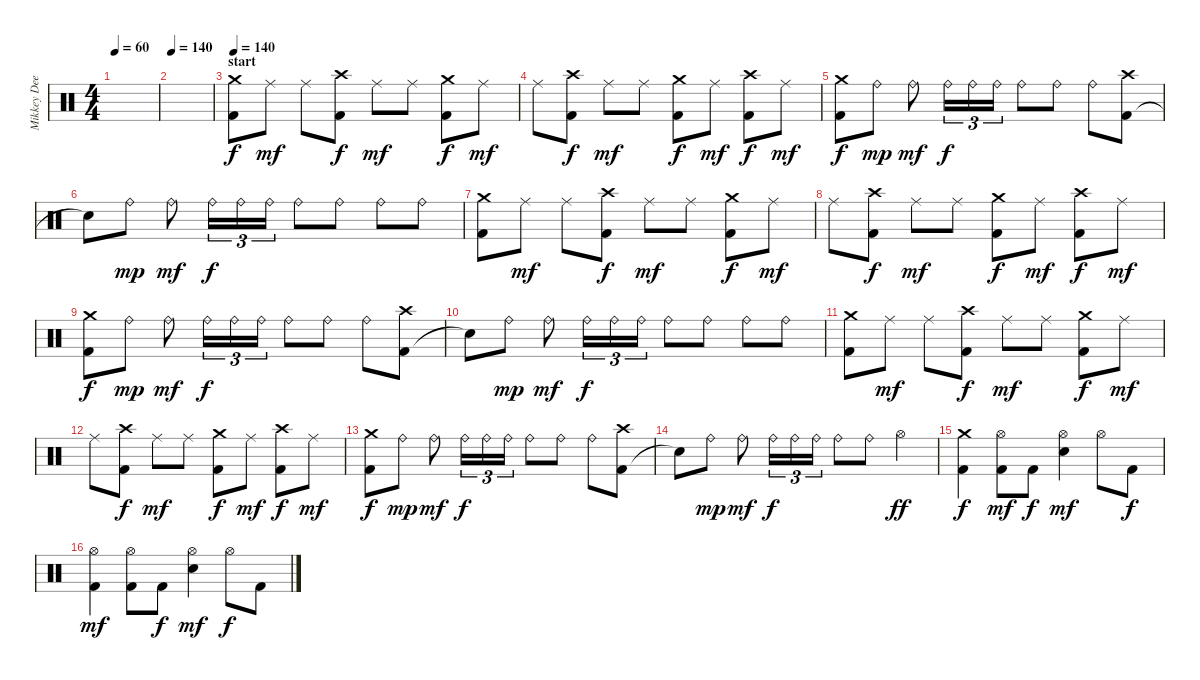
\track ("Mikkey Dee" "Mikkey Dee") {instrument percussion}
\staff {score}
\articulation defaults
\ts (4 4)
\tempo 60
\clef neutral
\ks c
|
\tempo 140
|
\section ("" "start")
\tempo 140
("Kick (hit) 2" "Crash medium (hit)").8 "Ride (middle)".8{dy mf} "Ride (middle)".8 ("Kick (hit) 2" "Crash high (hit)").8{dy f} "Ride (middle)".8{dy mf} "Ride (middle)".8 ("Kick (hit) 2" "Crash medium (hit)").8{dy f} "Ride (middle)".8{dy mf} |
"Ride (middle)".8 ("Kick (hit) 2" "Crash high (hit)").8{dy f} "Ride (middle)".8{dy mf} "Ride (middle)".8 ("Kick (hit) 2" "Crash medium (hit)").8{dy f} "Ride (middle)".8{dy mf} ("Kick (hit) 2" "Crash high (hit)").8{dy f} "Ride (middle)".8{dy mf} |
("Kick (hit) 2" "Crash medium (hit)").8{dy f} "Ride (bell)".8{dy mp} "Ride (bell)".8{dy mf} "Ride (bell)".16{tu (3 2) dy f} "Ride (bell)".16{tu (3 2)} "Ride (bell)".16{tu (3 2)} "Ride (bell)".8 "Ride (bell)".8 "Ride (bell)".8 ("Kick (hit) 2" "Crash high (hit)").8 |
"Snare (hit)"{t}.8 "Ride (bell)".8{dy mp} "Ride (bell)".8{dy mf} "Ride (bell)".16{tu (3 2) dy f} "Ride (bell)".16{tu (3 2)} "Ride (bell)".16{tu (3 2)} "Ride (bell)".8 "Ride (bell)".8 "Ride (bell)".8 "Ride (bell)".8 |
("Kick (hit) 2" "Crash medium (hit)").8 "Ride (middle)".8{dy mf} "Ride (middle)".8 ("Kick (hit) 2" "Crash high (hit)").8{dy f} "Ride (middle)".8{dy mf} "Ride (middle)".8 ("Kick (hit) 2" "Crash medium (hit)").8{dy f} "Ride (middle)".8{dy mf} |
"Ride (middle)".8 ("Kick (hit) 2" "Crash high (hit)").8{dy f} "Ride (middle)".8{dy mf} "Ride (middle)".8 ("Kick (hit) 2" "Crash medium (hit)").8{dy f} "Ride (middle)".8{dy mf} ("Kick (hit) 2" "Crash high (hit)").8{dy f} "Ride (middle)".8{dy mf} |
("Kick (hit) 2" "Crash medium (hit)").8{dy f} "Ride (bell)".8{dy mp} "Ride (bell)".8{dy mf} "Ride (bell)".16{tu (3 2) dy f} "Ride (bell)".16{tu (3 2)} "Ride (bell)".16{tu (3 2)} "Ride (bell)".8 "Ride (bell)".8 "Ride (bell)".8 ("Kick (hit) 2" "Crash high (hit)").8 |
"Snare (hit)"{t}.8 "Ride (bell)".8{dy mp} "Ride (bell)".8{dy mf} "Ride (bell)".16{tu (3 2) dy f} "Ride (bell)".16{tu (3 2)} "Ride (bell)".16{tu (3 2)} "Ride (bell)".8 "Ride (bell)".8 "Ride (bell)".8 "Ride (bell)".8 |
("Kick (hit) 2" "Crash medium (hit)").8 "Ride (middle)".8{dy mf} "Ride (middle)".8 ("Kick (hit) 2" "Crash high (hit)").8{dy f} "Ride (middle)".8{dy mf} "Ride (middle)".8 ("Kick (hit) 2" "Crash medium (hit)").8{dy f} "Ride (middle)".8{dy mf} |
"Ride (middle)".8 ("Kick (hit) 2" "Crash high (hit)").8{dy f} "Ride (middle)".8{dy mf} "Ride (middle)".8 ("Kick (hit) 2" "Crash medium (hit)").8{dy f} "Ride (middle)".8{dy mf} ("Kick (hit) 2" "Crash high (hit)").8{dy f} "Ride (middle)".8{dy mf} |
("Kick (hit) 2" "Crash medium (hit)").8{dy f} "Ride (bell)".8{dy mp} "Ride (bell)".8{dy mf} "Ride (bell)".16{tu (3 2) dy f} "Ride (bell)".16{tu (3 2)} "Ride (bell)".16{tu (3 2)} "Ride (bell)".8 "Ride (bell)".8 "Ride (bell)".8 ("Kick (hit) 2" "Crash high (hit)").8 |
"Snare (hit)"{t}.8 "Ride (bell)".8{dy mp} "Ride (bell)".8{dy mf} "Ride (bell)".16{tu (3 2) dy f} "Ride (bell)".16{tu (3 2)} "Ride (bell)".16{tu (3 2)} "Ride (bell)".8 "Ride (bell)".8 "Hi-Hat (open)".4{dy ff} |
("Kick (hit) 2" "Crash medium (hit)").4{dy f} ("Kick (hit) 2" "Hi-Hat (open)").8{dy mf} "Kick (hit) 2".8{dy f} ("Hi-Hat (open)" "Snare (hit) 2").4{dy mf} "Hi-Hat (open)".8 "Kick (hit) 2".8{dy f} |
("Kick (hit) 2" "Hi-Hat (open)").4{dy mf} ("Kick (hit) 2" "Hi-Hat (open)").8 "Kick (hit) 2".8{dy f} ("Hi-Hat (open)" "Snare (hit) 2").4{dy mf} "Hi-Hat (open)".8{dy f} "Kick (hit) 2".8
